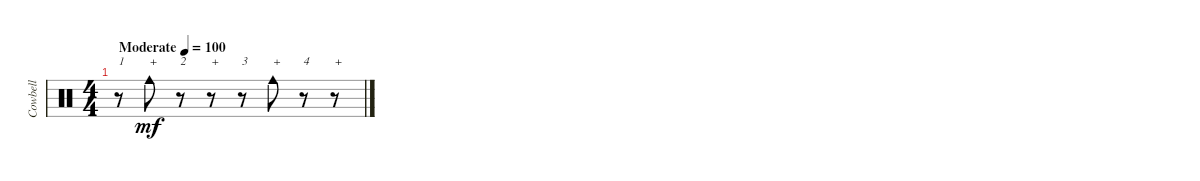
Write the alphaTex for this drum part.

\track ("Cowbell" "Cowbell") {instrument percussion}
\staff {score}
\articulation defaults
\ts (4 4)
\tempo (100 "Moderate")
\clef neutral
\ks c
r.8{txt "1" dy mf} "Cowbell medium (hit)".8{txt "+"} r.8{txt "2"} r.8{txt "+"} r.8{txt "3"} "Cowbell medium (hit)".8{txt "+"} r.8{txt "4"} r.8{txt "+"}
